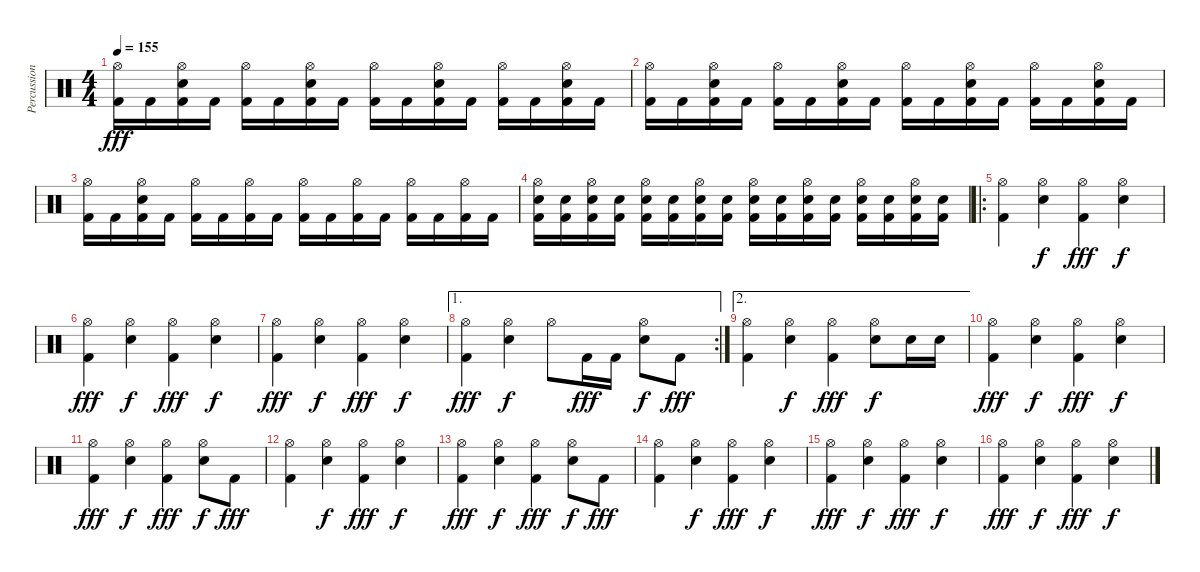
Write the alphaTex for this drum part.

\track ("Percussion" "Percussion") {instrument percussion}
\staff {score}
\articulation defaults
\ts (4 4)
\tempo 155
\clef neutral
\ks c
("Hi-Hat (open)" "Kick (hit) 2").16{dy fff} "Kick (hit) 2".16 ("Hi-Hat (open)" "Snare (hit) 2" "Kick (hit) 2").16 "Kick (hit) 2".16 ("Hi-Hat (open)" "Kick (hit) 2").16 "Kick (hit) 2".16 ("Hi-Hat (open)" "Snare (hit) 2" "Kick (hit) 2").16 "Kick (hit) 2".16 ("Hi-Hat (open)" "Kick (hit) 2").16 "Kick (hit) 2".16 ("Hi-Hat (open)" "Snare (hit) 2" "Kick (hit) 2").16 "Kick (hit) 2".16 ("Hi-Hat (open)" "Kick (hit) 2").16 "Kick (hit) 2".16 ("Hi-Hat (open)" "Snare (hit) 2" "Kick (hit) 2").16 "Kick (hit) 2".16 |
("Hi-Hat (open)" "Kick (hit) 2").16 "Kick (hit) 2".16 ("Hi-Hat (open)" "Snare (hit) 2" "Kick (hit) 2").16 "Kick (hit) 2".16 ("Hi-Hat (open)" "Kick (hit) 2").16 "Kick (hit) 2".16 ("Hi-Hat (open)" "Snare (hit) 2" "Kick (hit) 2").16 "Kick (hit) 2".16 ("Hi-Hat (open)" "Kick (hit) 2").16 "Kick (hit) 2".16 ("Hi-Hat (open)" "Snare (hit) 2" "Kick (hit) 2").16 "Kick (hit) 2".16 ("Hi-Hat (open)" "Kick (hit) 2").16 "Kick (hit) 2".16 ("Hi-Hat (open)" "Snare (hit) 2" "Kick (hit) 2").16 "Kick (hit) 2".16 |
("Hi-Hat (open)" "Kick (hit) 2").16 "Kick (hit) 2".16 ("Hi-Hat (open)" "Snare (hit) 2" "Kick (hit) 2").16 "Kick (hit) 2".16 ("Hi-Hat (open)" "Kick (hit) 2").16 "Kick (hit) 2".16 ("Hi-Hat (open)" "Kick (hit) 2").16 "Kick (hit) 2".16 ("Hi-Hat (open)" "Kick (hit) 2").16 "Kick (hit) 2".16 ("Hi-Hat (open)" "Kick (hit) 2").16 "Kick (hit) 2".16 ("Hi-Hat (open)" "Kick (hit) 2").16 "Kick (hit) 2".16 ("Hi-Hat (open)" "Kick (hit) 2").16 "Kick (hit) 2".16 |
("Hi-Hat (open)" "Snare (hit) 2" "Kick (hit) 2").16 ("Snare (hit) 2" "Kick (hit) 2").16 ("Hi-Hat (open)" "Snare (hit) 2" "Kick (hit) 2").16 ("Snare (hit) 2" "Kick (hit) 2").16 ("Hi-Hat (open)" "Snare (hit) 2" "Kick (hit) 2").16 ("Snare (hit) 2" "Kick (hit) 2").16 ("Hi-Hat (open)" "Snare (hit) 2" "Kick (hit) 2").16 ("Snare (hit) 2" "Kick (hit) 2").16 ("Hi-Hat (open)" "Snare (hit) 2" "Kick (hit) 2").16 ("Snare (hit) 2" "Kick (hit) 2").16 ("Hi-Hat (open)" "Snare (hit) 2" "Kick (hit) 2").16 ("Snare (hit) 2" "Kick (hit) 2").16 ("Hi-Hat (open)" "Snare (hit) 2" "Kick (hit) 2").16 ("Snare (hit) 2" "Kick (hit) 2").16 ("Hi-Hat (open)" "Snare (hit) 2" "Kick (hit) 2").16 ("Snare (hit) 2" "Kick (hit) 2").16 |
\ro
("Hi-Hat (open)" "Kick (hit) 2").4 ("Hi-Hat (open)" "Snare (hit) 2").4{dy f} ("Hi-Hat (open)" "Kick (hit) 2").4{dy fff} ("Hi-Hat (open)" "Snare (hit) 2").4{dy f} |
("Hi-Hat (open)" "Kick (hit) 2").4{dy fff} ("Hi-Hat (open)" "Snare (hit) 2").4{dy f} ("Hi-Hat (open)" "Kick (hit) 2").4{dy fff} ("Hi-Hat (open)" "Snare (hit) 2").4{dy f} |
("Hi-Hat (open)" "Kick (hit) 2").4{dy fff} ("Hi-Hat (open)" "Snare (hit) 2").4{dy f} ("Hi-Hat (open)" "Kick (hit) 2").4{dy fff} ("Hi-Hat (open)" "Snare (hit) 2").4{dy f} |
\ae 1
\rc 2
("Hi-Hat (open)" "Kick (hit) 2").4{dy fff} ("Hi-Hat (open)" "Snare (hit) 2").4{dy f} "Hi-Hat (open)".8 "Kick (hit) 2".16{dy fff} "Kick (hit) 2".16 ("Hi-Hat (open)" "Snare (hit) 2").8{dy f} "Kick (hit) 2".8{dy fff} |
\ae 2
("Hi-Hat (open)" "Kick (hit) 2").4 ("Hi-Hat (open)" "Snare (hit) 2").4{dy f} ("Hi-Hat (open)" "Kick (hit) 2").4{dy fff} ("Hi-Hat (open)" "Snare (hit) 2").8{dy f} "Snare (hit) 2".16 "Snare (hit) 2".16 |
("Hi-Hat (open)" "Kick (hit) 2").4{dy fff} ("Hi-Hat (open)" "Snare (hit) 2").4{dy f} ("Hi-Hat (open)" "Kick (hit) 2").4{dy fff} ("Hi-Hat (open)" "Snare (hit) 2").4{dy f} |
("Hi-Hat (open)" "Kick (hit) 2").4{dy fff} ("Hi-Hat (open)" "Snare (hit) 2").4{dy f} ("Hi-Hat (open)" "Kick (hit) 2").4{dy fff} ("Hi-Hat (open)" "Snare (hit) 2").8{dy f} "Kick (hit) 2".8{dy fff} |
("Hi-Hat (open)" "Kick (hit) 2").4 ("Hi-Hat (open)" "Snare (hit) 2").4{dy f} ("Hi-Hat (open)" "Kick (hit) 2").4{dy fff} ("Hi-Hat (open)" "Snare (hit) 2").4{dy f} |
("Hi-Hat (open)" "Kick (hit) 2").4{dy fff} ("Hi-Hat (open)" "Snare (hit) 2").4{dy f} ("Hi-Hat (open)" "Kick (hit) 2").4{dy fff} ("Hi-Hat (open)" "Snare (hit) 2").8{dy f} "Kick (hit) 2".8{dy fff} |
("Hi-Hat (open)" "Kick (hit) 2").4 ("Hi-Hat (open)" "Snare (hit) 2").4{dy f} ("Hi-Hat (open)" "Kick (hit) 2").4{dy fff} ("Hi-Hat (open)" "Snare (hit) 2").4{dy f} |
("Hi-Hat (open)" "Kick (hit) 2").4{dy fff} ("Hi-Hat (open)" "Snare (hit) 2").4{dy f} ("Hi-Hat (open)" "Kick (hit) 2").4{dy fff} ("Hi-Hat (open)" "Snare (hit) 2").4{dy f} |
("Hi-Hat (open)" "Kick (hit) 2").4{dy fff} ("Hi-Hat (open)" "Snare (hit) 2").4{dy f} ("Hi-Hat (open)" "Kick (hit) 2").4{dy fff} ("Hi-Hat (open)" "Snare (hit) 2").4{dy f}
